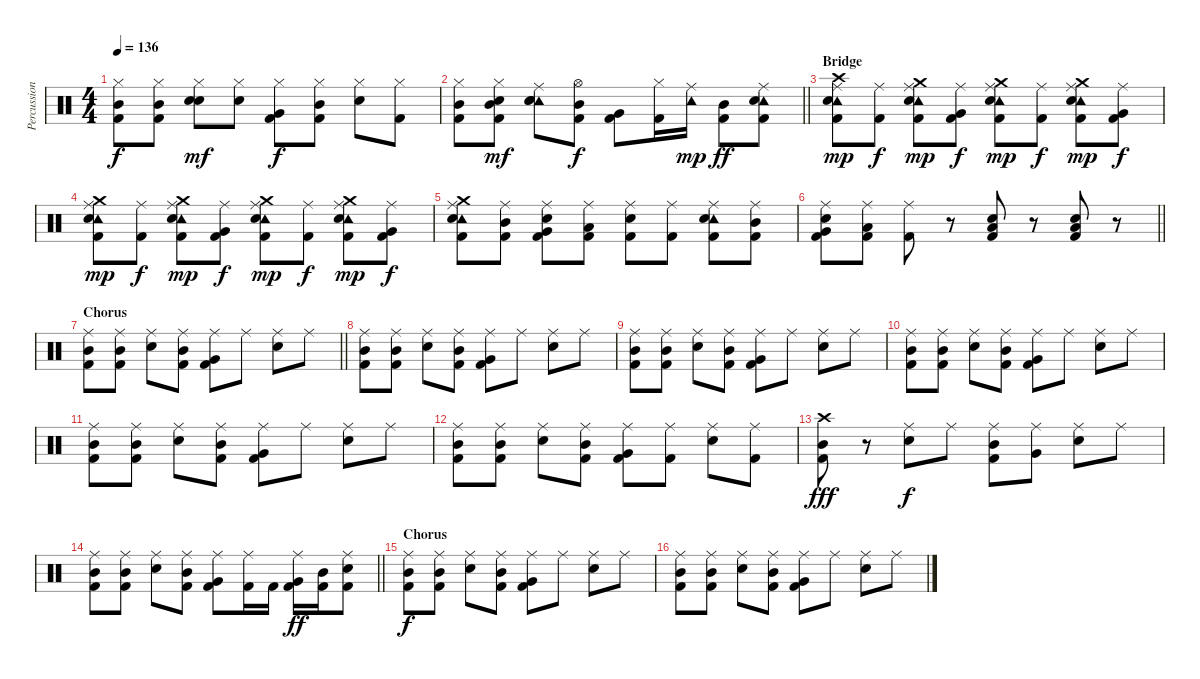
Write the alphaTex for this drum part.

\track ("Percussion" "Percussion") {instrument percussion}
\staff {score}
\articulation defaults
\ts (4 4)
\tempo 136
\clef neutral
\ks c
("Hi-Hat (closed)" "Mid Tom (hit)" "Kick (hit) 2").8{dy f} ("Hi-Hat (closed)" "Mid Tom (hit)" "Kick (hit) 2").8 ("Hi-Hat (closed)" "Hand Clap (hit)" "Snare (hit) 2").8{dy mf} ("Hi-Hat (closed)" "Hand Clap (hit)").8 ("Hi-Hat (closed)" "Very Low Tom (hit)" "Kick (hit) 2").8{dy f} ("Hi-Hat (closed)" "Mid Tom (hit)" "Kick (hit) 2").8 ("Hi-Hat (closed)" "Snare (hit) 2").8 ("Hi-Hat (closed)" "Kick (hit) 2").8 |
\barLineRight lightlight
("Hi-Hat (closed)" "Mid Tom (hit)" "Kick (hit) 2").8 ("Hi-Hat (closed)" "Mid Tom (hit)" "Hand Clap (hit)" "Kick (hit) 2").8{dy mf} ("Tambourine (hit)" "Ride (middle)" "Hand Clap (hit)" "Snare (hit) 2").8 ("Hi-Hat (open)" "Mid Tom (hit)" "Kick (hit) 2").8{dy f} ("Very Low Tom (hit)" "Kick (hit) 2").8 ("Hi-Hat (closed)" "Kick (hit) 2").16 ("Tambourine (hit)" "Ride (middle)").16{dy mp} ("Mid Tom (hit)" "Kick (hit) 2").8{dy ff} ("Tambourine (hit)" "Ride (middle)" "Snare (hit) 2" "Kick (hit) 2").8 |
\section ("" "Bridge")
("Crash high (hit)" "Tambourine (hit)" "Ride (middle)" "Snare (hit) 2" "Kick (hit) 2").8{dy mp} ("Ride (middle)" "Kick (hit) 2").8{dy f} ("Crash medium (hit)" "Tambourine (hit)" "Ride (middle)" "Snare (hit) 2" "Kick (hit) 2").8{dy mp} ("Ride (middle)" "Very Low Tom (hit)" "Kick (hit) 2").8{dy f} ("Crash medium (hit)" "Tambourine (hit)" "Ride (middle)" "Snare (hit) 2" "Kick (hit) 2").8{dy mp} ("Ride (middle)" "Kick (hit) 2").8{dy f} ("Crash medium (hit)" "Tambourine (hit)" "Ride (middle)" "Snare (hit) 2" "Kick (hit) 2").8{dy mp} ("Ride (middle)" "Very Low Tom (hit)" "Kick (hit) 2").8{dy f} |
("Crash medium (hit)" "Tambourine (hit)" "Ride (middle)" "Snare (hit) 2" "Kick (hit) 2").8{dy mp} ("Ride (middle)" "Kick (hit) 2").8{dy f} ("Crash medium (hit)" "Tambourine (hit)" "Ride (middle)" "Snare (hit) 2" "Kick (hit) 2").8{dy mp} ("Ride (middle)" "Very Low Tom (hit)" "Kick (hit) 2").8{dy f} ("Crash medium (hit)" "Tambourine (hit)" "Ride (middle)" "Snare (hit) 2" "Kick (hit) 2").8{dy mp} ("Ride (middle)" "Kick (hit) 2").8{dy f} ("Crash medium (hit)" "Tambourine (hit)" "Ride (middle)" "Snare (hit) 2" "Kick (hit) 2").8{dy mp} ("Ride (middle)" "Very Low Tom (hit)" "Kick (hit) 2").8{dy f} |
("Crash medium (hit)" "Tambourine (hit)" "Ride (middle)" "Snare (hit) 2" "Kick (hit) 2").8 ("Ride (middle)" "Mid Tom (hit)" "Kick (hit) 2").8 ("Ride (middle)" "Very Low Tom (hit)" "Snare (hit) 2" "Kick (hit) 2").8 ("Ride (middle)" "Low Floor Tom (hit)" "Kick (hit) 2").8 ("Ride (middle)" "Snare (hit) 2" "Kick (hit) 2").8 ("Ride (middle)" "Kick (hit) 2").8 ("Tambourine (hit)" "Ride (middle)" "Snare (hit) 2" "Kick (hit) 2").8 ("Ride (middle)" "Mid Tom (hit)" "Kick (hit) 2").8 |
\barLineRight lightlight
("Ride (middle)" "Very Low Tom (hit)" "Snare (hit) 2" "Kick (hit) 2").8 ("Ride (middle)" "Low Floor Tom (hit)" "Kick (hit) 2").8 ("Ride (middle)" "Kick (hit) 2").8 r.8 ("Low Floor Tom (hit)" "Snare (hit) 2" "Kick (hit) 2").8 r.8 ("Low Floor Tom (hit)" "Snare (hit) 2" "Kick (hit) 2").8 r.8 |
\section ("" "Chorus")
\barLineRight lightlight
("Ride (middle)" "Mid Tom (hit)" "Kick (hit) 2").8 ("Ride (middle)" "Mid Tom (hit)" "Kick (hit) 2").8 ("Ride (middle)" "Snare (hit) 2").8 ("Ride (middle)" "Mid Tom (hit)" "Kick (hit) 2").8 ("Ride (middle)" "Very Low Tom (hit)" "Kick (hit) 2").8 "Ride (middle)".8 ("Ride (middle)" "Snare (hit) 2").8 "Ride (middle)".8 |
\section ("" "")
("Ride (middle)" "Mid Tom (hit)" "Kick (hit) 2").8 ("Ride (middle)" "Mid Tom (hit)" "Kick (hit) 2").8 ("Ride (middle)" "Snare (hit) 2").8 ("Ride (middle)" "Mid Tom (hit)" "Kick (hit) 2").8 ("Ride (middle)" "Very Low Tom (hit)" "Kick (hit) 2").8 "Ride (middle)".8 ("Ride (middle)" "Snare (hit) 2").8 "Ride (middle)".8 |
("Ride (middle)" "Mid Tom (hit)" "Kick (hit) 2").8 ("Ride (middle)" "Mid Tom (hit)" "Kick (hit) 2").8 ("Ride (middle)" "Snare (hit) 2").8 ("Ride (middle)" "Mid Tom (hit)" "Kick (hit) 2").8 ("Ride (middle)" "Very Low Tom (hit)" "Kick (hit) 2").8 "Ride (middle)".8 ("Ride (middle)" "Snare (hit) 2").8 "Ride (middle)".8 |
("Ride (middle)" "Mid Tom (hit)" "Kick (hit) 2").8 ("Ride (middle)" "Mid Tom (hit)" "Kick (hit) 2").8 ("Ride (middle)" "Snare (hit) 2").8 ("Ride (middle)" "Mid Tom (hit)" "Kick (hit) 2").8 ("Ride (middle)" "Very Low Tom (hit)" "Kick (hit) 2").8 "Ride (middle)".8 ("Ride (middle)" "Snare (hit) 2").8 "Ride (middle)".8 |
("Ride (middle)" "Mid Tom (hit)" "Kick (hit) 2").8 ("Ride (middle)" "Mid Tom (hit)" "Kick (hit) 2").8 ("Ride (middle)" "Snare (hit) 2").8 ("Ride (middle)" "Mid Tom (hit)" "Kick (hit) 2").8 ("Ride (middle)" "Very Low Tom (hit)" "Kick (hit) 2").8 "Ride (middle)".8 ("Ride (middle)" "Snare (hit) 2").8 "Ride (middle)".8 |
("Ride (middle)" "Mid Tom (hit)" "Kick (hit) 2").8 ("Ride (middle)" "Mid Tom (hit)" "Kick (hit) 2").8 ("Ride (middle)" "Snare (hit) 2").8 ("Ride (middle)" "Mid Tom (hit)" "Kick (hit) 2").8 ("Ride (middle)" "Very Low Tom (hit)" "Kick (hit) 2").8 ("Ride (middle)" "Kick (hit) 2").8 ("Ride (middle)" "Snare (hit) 2").8 ("Ride (middle)" "Kick (hit) 2").8 |
("Crash high (hit)" "Mid Tom (hit)" "Kick (hit) 2").8{dy fff} r.8 ("Ride (middle)" "Snare (hit) 2").8{dy f} "Ride (middle)".8 ("Ride (middle)" "Mid Tom (hit)" "Kick (hit) 2").8 ("Ride (middle)" "Very Low Tom (hit)").8 ("Ride (middle)" "Snare (hit) 2").8 "Ride (middle)".8 |
\barLineRight lightlight
("Ride (middle)" "Mid Tom (hit)" "Kick (hit) 2").8 ("Ride (middle)" "Mid Tom (hit)" "Kick (hit) 2").8 ("Ride (middle)" "Snare (hit) 2").8 ("Ride (middle)" "Mid Tom (hit)" "Kick (hit) 2").8 ("Ride (middle)" "Very Low Tom (hit)" "Kick (hit) 2").8 ("Ride (middle)" "Kick (hit) 2").16 "Kick (hit) 2".16 ("Ride (middle)" "Very Low Tom (hit)" "Kick (hit) 2").16{dy ff} ("Mid Tom (hit)" "Kick (hit) 2").16 ("Ride (middle)" "Snare (hit) 2" "Kick (hit) 2").8 |
\section ("" "Chorus")
("Ride (middle)" "Mid Tom (hit)" "Kick (hit) 2").8{dy f} ("Ride (middle)" "Mid Tom (hit)" "Kick (hit) 2").8 ("Ride (middle)" "Snare (hit) 2").8 ("Ride (middle)" "Mid Tom (hit)" "Kick (hit) 2").8 ("Ride (middle)" "Very Low Tom (hit)" "Kick (hit) 2").8 "Ride (middle)".8 ("Ride (middle)" "Snare (hit) 2").8 "Ride (middle)".8 |
("Ride (middle)" "Mid Tom (hit)" "Kick (hit) 2").8 ("Ride (middle)" "Mid Tom (hit)" "Kick (hit) 2").8 ("Ride (middle)" "Snare (hit) 2").8 ("Ride (middle)" "Mid Tom (hit)" "Kick (hit) 2").8 ("Ride (middle)" "Very Low Tom (hit)" "Kick (hit) 2").8 "Ride (middle)".8 ("Ride (middle)" "Snare (hit) 2").8 "Ride (middle)".8
